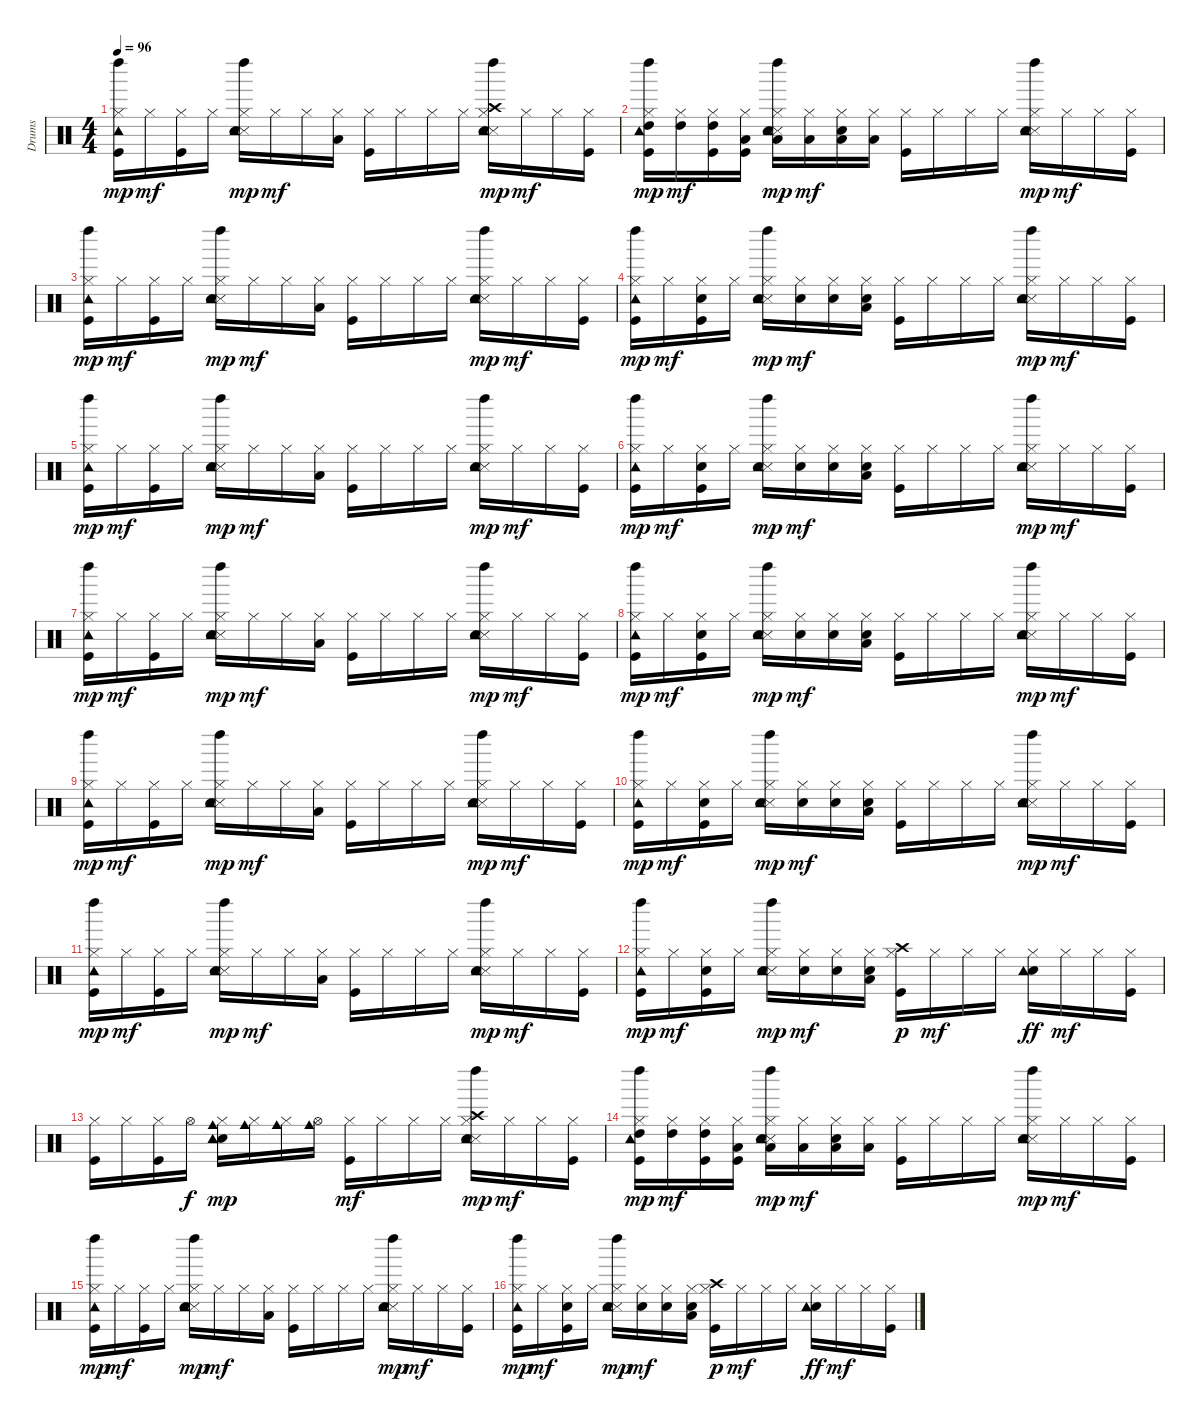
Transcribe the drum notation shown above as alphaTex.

\track ("Drums" "Drums") {instrument percussion}
\staff {score}
\articulation defaults
\ts (4 4)
\tempo 96
\clef neutral
\ks c
("Kick (hit)" "Hi-Hat (closed)" "Tambourine (hit)" "Left Maraca (hit)").16{dy mp} "Hi-Hat (closed)".16{dy mf} ("Kick (hit)" "Hi-Hat (closed)").16 "Hi-Hat (closed)".16 ("Snare (side stick) 3" "Snare (hit) 2" "Hi-Hat (closed)" "Tambourine (hit)" "Left Maraca (hit)").16{dy mp} "Hi-Hat (closed)".16{dy mf} "Hi-Hat (closed)".16 ("Low Floor Tom (hit)" "Hi-Hat (closed)").16 ("Kick (hit)" "Hi-Hat (closed)").16 "Hi-Hat (closed)".16 "Hi-Hat (closed)".16 "Hi-Hat (closed)".16 ("Snare (side stick) 3" "Snare (hit) 2" "Hi-Hat (closed)" "Crash high (hit)" "Tambourine (hit)" "Left Maraca (hit)").16{dy mp} "Hi-Hat (closed)".16{dy mf} "Hi-Hat (closed)".16 ("Kick (hit)" "Hi-Hat (closed)").16 |
("Kick (hit)" "Hi-Hat (closed)" "High Tom (hit)" "Tambourine (hit)" "Left Maraca (hit)").16{dy mp} ("Hi-Hat (closed)" "High Tom (hit)").16{dy mf} ("Kick (hit)" "Hi-Hat (closed)" "High Tom (hit)").16 ("Kick (hit)" "Hi-Hat (closed)" "Low Tom (hit)").16 ("Snare (side stick) 3" "Snare (hit) 2" "Hi-Hat (closed)" "Low Tom (hit)" "Tambourine (hit)" "Left Maraca (hit)").16{dy mp} ("Hi-Hat (closed)" "Low Tom (hit)").16{dy mf} ("Snare (hit) 2" "Low Floor Tom (hit)" "Hi-Hat (closed)").16 ("Low Floor Tom (hit)" "Hi-Hat (closed)").16 ("Kick (hit)" "Hi-Hat (closed)").16 "Hi-Hat (closed)".16 "Hi-Hat (closed)".16 "Hi-Hat (closed)".16 ("Snare (side stick) 3" "Snare (hit) 2" "Hi-Hat (closed)" "Tambourine (hit)" "Left Maraca (hit)").16{dy mp} "Hi-Hat (closed)".16{dy mf} "Hi-Hat (closed)".16 ("Kick (hit)" "Hi-Hat (closed)").16 |
("Kick (hit)" "Hi-Hat (closed)" "Tambourine (hit)" "Left Maraca (hit)").16{dy mp} "Hi-Hat (closed)".16{dy mf} ("Kick (hit)" "Hi-Hat (closed)").16 "Hi-Hat (closed)".16 ("Snare (side stick) 3" "Snare (hit) 2" "Hi-Hat (closed)" "Tambourine (hit)" "Left Maraca (hit)").16{dy mp} "Hi-Hat (closed)".16{dy mf} "Hi-Hat (closed)".16 ("Low Floor Tom (hit)" "Hi-Hat (closed)").16 ("Kick (hit)" "Hi-Hat (closed)").16 "Hi-Hat (closed)".16 "Hi-Hat (closed)".16 "Hi-Hat (closed)".16 ("Snare (side stick) 3" "Snare (hit) 2" "Hi-Hat (closed)" "Tambourine (hit)" "Left Maraca (hit)").16{dy mp} "Hi-Hat (closed)".16{dy mf} "Hi-Hat (closed)".16 ("Kick (hit)" "Hi-Hat (closed)").16 |
("Kick (hit)" "Hi-Hat (closed)" "Tambourine (hit)" "Left Maraca (hit)").16{dy mp} "Hi-Hat (closed)".16{dy mf} ("Kick (hit)" "Snare (hit) 2" "Hi-Hat (closed)").16 "Hi-Hat (closed)".16 ("Snare (side stick) 3" "Snare (hit) 2" "Hi-Hat (closed)" "Tambourine (hit)" "Left Maraca (hit)").16{dy mp} ("Snare (hit) 2" "Hi-Hat (closed)").16{dy mf} ("Snare (hit) 2" "Hi-Hat (closed)").16 ("Snare (hit) 2" "Low Floor Tom (hit)" "Hi-Hat (closed)").16 ("Kick (hit)" "Hi-Hat (closed)").16 "Hi-Hat (closed)".16 "Hi-Hat (closed)".16 "Hi-Hat (closed)".16 ("Snare (side stick) 3" "Snare (hit) 2" "Hi-Hat (closed)" "Tambourine (hit)" "Left Maraca (hit)").16{dy mp} "Hi-Hat (closed)".16{dy mf} "Hi-Hat (closed)".16 ("Kick (hit)" "Hi-Hat (closed)").16 |
("Kick (hit)" "Hi-Hat (closed)" "Tambourine (hit)" "Left Maraca (hit)").16{dy mp} "Hi-Hat (closed)".16{dy mf} ("Kick (hit)" "Hi-Hat (closed)").16 "Hi-Hat (closed)".16 ("Snare (side stick) 3" "Snare (hit) 2" "Hi-Hat (closed)" "Tambourine (hit)" "Left Maraca (hit)").16{dy mp} "Hi-Hat (closed)".16{dy mf} "Hi-Hat (closed)".16 ("Low Floor Tom (hit)" "Hi-Hat (closed)").16 ("Kick (hit)" "Hi-Hat (closed)").16 "Hi-Hat (closed)".16 "Hi-Hat (closed)".16 "Hi-Hat (closed)".16 ("Snare (side stick) 3" "Snare (hit) 2" "Hi-Hat (closed)" "Tambourine (hit)" "Left Maraca (hit)").16{dy mp} "Hi-Hat (closed)".16{dy mf} "Hi-Hat (closed)".16 ("Kick (hit)" "Hi-Hat (closed)").16 |
("Kick (hit)" "Hi-Hat (closed)" "Tambourine (hit)" "Left Maraca (hit)").16{dy mp} "Hi-Hat (closed)".16{dy mf} ("Kick (hit)" "Snare (hit) 2" "Hi-Hat (closed)").16 "Hi-Hat (closed)".16 ("Snare (side stick) 3" "Snare (hit) 2" "Hi-Hat (closed)" "Tambourine (hit)" "Left Maraca (hit)").16{dy mp} ("Snare (hit) 2" "Hi-Hat (closed)").16{dy mf} ("Snare (hit) 2" "Hi-Hat (closed)").16 ("Snare (hit) 2" "Low Floor Tom (hit)" "Hi-Hat (closed)").16 ("Kick (hit)" "Hi-Hat (closed)").16 "Hi-Hat (closed)".16 "Hi-Hat (closed)".16 "Hi-Hat (closed)".16 ("Snare (side stick) 3" "Snare (hit) 2" "Hi-Hat (closed)" "Tambourine (hit)" "Left Maraca (hit)").16{dy mp} "Hi-Hat (closed)".16{dy mf} "Hi-Hat (closed)".16 ("Kick (hit)" "Hi-Hat (closed)").16 |
("Kick (hit)" "Hi-Hat (closed)" "Tambourine (hit)" "Left Maraca (hit)").16{dy mp} "Hi-Hat (closed)".16{dy mf} ("Kick (hit)" "Hi-Hat (closed)").16 "Hi-Hat (closed)".16 ("Snare (side stick) 3" "Snare (hit) 2" "Hi-Hat (closed)" "Tambourine (hit)" "Left Maraca (hit)").16{dy mp} "Hi-Hat (closed)".16{dy mf} "Hi-Hat (closed)".16 ("Low Floor Tom (hit)" "Hi-Hat (closed)").16 ("Kick (hit)" "Hi-Hat (closed)").16 "Hi-Hat (closed)".16 "Hi-Hat (closed)".16 "Hi-Hat (closed)".16 ("Snare (side stick) 3" "Snare (hit) 2" "Hi-Hat (closed)" "Tambourine (hit)" "Left Maraca (hit)").16{dy mp} "Hi-Hat (closed)".16{dy mf} "Hi-Hat (closed)".16 ("Kick (hit)" "Hi-Hat (closed)").16 |
("Kick (hit)" "Hi-Hat (closed)" "Tambourine (hit)" "Left Maraca (hit)").16{dy mp} "Hi-Hat (closed)".16{dy mf} ("Kick (hit)" "Snare (hit) 2" "Hi-Hat (closed)").16 "Hi-Hat (closed)".16 ("Snare (side stick) 3" "Snare (hit) 2" "Hi-Hat (closed)" "Tambourine (hit)" "Left Maraca (hit)").16{dy mp} ("Snare (hit) 2" "Hi-Hat (closed)").16{dy mf} ("Snare (hit) 2" "Hi-Hat (closed)").16 ("Snare (hit) 2" "Low Floor Tom (hit)" "Hi-Hat (closed)").16 ("Kick (hit)" "Hi-Hat (closed)").16 "Hi-Hat (closed)".16 "Hi-Hat (closed)".16 "Hi-Hat (closed)".16 ("Snare (side stick) 3" "Snare (hit) 2" "Hi-Hat (closed)" "Tambourine (hit)" "Left Maraca (hit)").16{dy mp} "Hi-Hat (closed)".16{dy mf} "Hi-Hat (closed)".16 ("Kick (hit)" "Hi-Hat (closed)").16 |
("Kick (hit)" "Hi-Hat (closed)" "Tambourine (hit)" "Left Maraca (hit)").16{dy mp} "Hi-Hat (closed)".16{dy mf} ("Kick (hit)" "Hi-Hat (closed)").16 "Hi-Hat (closed)".16 ("Snare (side stick) 3" "Snare (hit) 2" "Hi-Hat (closed)" "Tambourine (hit)" "Left Maraca (hit)").16{dy mp} "Hi-Hat (closed)".16{dy mf} "Hi-Hat (closed)".16 ("Low Floor Tom (hit)" "Hi-Hat (closed)").16 ("Kick (hit)" "Hi-Hat (closed)").16 "Hi-Hat (closed)".16 "Hi-Hat (closed)".16 "Hi-Hat (closed)".16 ("Snare (side stick) 3" "Snare (hit) 2" "Hi-Hat (closed)" "Tambourine (hit)" "Left Maraca (hit)").16{dy mp} "Hi-Hat (closed)".16{dy mf} "Hi-Hat (closed)".16 ("Kick (hit)" "Hi-Hat (closed)").16 |
("Kick (hit)" "Hi-Hat (closed)" "Tambourine (hit)" "Left Maraca (hit)").16{dy mp} "Hi-Hat (closed)".16{dy mf} ("Kick (hit)" "Snare (hit) 2" "Hi-Hat (closed)").16 "Hi-Hat (closed)".16 ("Snare (side stick) 3" "Snare (hit) 2" "Hi-Hat (closed)" "Tambourine (hit)" "Left Maraca (hit)").16{dy mp} ("Snare (hit) 2" "Hi-Hat (closed)").16{dy mf} ("Snare (hit) 2" "Hi-Hat (closed)").16 ("Snare (hit) 2" "Low Floor Tom (hit)" "Hi-Hat (closed)").16 ("Kick (hit)" "Hi-Hat (closed)").16 "Hi-Hat (closed)".16 "Hi-Hat (closed)".16 "Hi-Hat (closed)".16 ("Snare (side stick) 3" "Snare (hit) 2" "Hi-Hat (closed)" "Tambourine (hit)" "Left Maraca (hit)").16{dy mp} "Hi-Hat (closed)".16{dy mf} "Hi-Hat (closed)".16 ("Kick (hit)" "Hi-Hat (closed)").16 |
("Kick (hit)" "Hi-Hat (closed)" "Tambourine (hit)" "Left Maraca (hit)").16{dy mp} "Hi-Hat (closed)".16{dy mf} ("Kick (hit)" "Hi-Hat (closed)").16 "Hi-Hat (closed)".16 ("Snare (side stick) 3" "Snare (hit) 2" "Hi-Hat (closed)" "Tambourine (hit)" "Left Maraca (hit)").16{dy mp} "Hi-Hat (closed)".16{dy mf} "Hi-Hat (closed)".16 ("Low Floor Tom (hit)" "Hi-Hat (closed)").16 ("Kick (hit)" "Hi-Hat (closed)").16 "Hi-Hat (closed)".16 "Hi-Hat (closed)".16 "Hi-Hat (closed)".16 ("Snare (side stick) 3" "Snare (hit) 2" "Hi-Hat (closed)" "Tambourine (hit)" "Left Maraca (hit)").16{dy mp} "Hi-Hat (closed)".16{dy mf} "Hi-Hat (closed)".16 ("Kick (hit)" "Hi-Hat (closed)").16 |
("Kick (hit)" "Hi-Hat (closed)" "Tambourine (hit)" "Left Maraca (hit)").16{dy mp} "Hi-Hat (closed)".16{dy mf} ("Kick (hit)" "Snare (hit) 2" "Hi-Hat (closed)").16 "Hi-Hat (closed)".16 ("Snare (side stick) 3" "Snare (hit) 2" "Hi-Hat (closed)" "Tambourine (hit)" "Left Maraca (hit)").16{dy mp} ("Snare (hit) 2" "Hi-Hat (closed)").16{dy mf} ("Snare (hit) 2" "Hi-Hat (closed)").16 ("Snare (hit) 2" "Low Floor Tom (hit)" "Hi-Hat (closed)").16 ("Kick (hit)" "Hi-Hat (closed)" "Crash high (hit)").16{dy p} "Hi-Hat (closed)".16{dy mf} "Hi-Hat (closed)".16 "Hi-Hat (closed)".16 ("Snare (hit) 2" "Hi-Hat (closed)" "Tambourine (hit)" "Tambourine (hit)").16{dy ff} "Hi-Hat (closed)".16{dy mf} "Hi-Hat (closed)".16 ("Kick (hit)" "Hi-Hat (closed)").16 |
("Kick (hit)" "Hi-Hat (closed)").16 "Hi-Hat (closed)".16 ("Kick (hit)" "Hi-Hat (closed)").16 "Hi-Hat (open)".16{dy f} ("Snare (hit) 2" "Hi-Hat (closed)" "Tambourine (hit)" "Tambourine (hit)" "Cowbell medium (hit)").16{dy mp} ("Hi-Hat (closed)" "Cowbell medium (hit)").16 ("Hi-Hat (closed)" "Cowbell medium (hit)").16 ("Hi-Hat (open)" "Cowbell medium (hit)").16 ("Kick (hit)" "Hi-Hat (closed)").16{dy mf} "Hi-Hat (closed)".16 "Hi-Hat (closed)".16 "Hi-Hat (closed)".16 ("Snare (side stick) 3" "Snare (hit) 2" "Hi-Hat (closed)" "Crash high (hit)" "Tambourine (hit)" "Left Maraca (hit)").16{dy mp} "Hi-Hat (closed)".16{dy mf} "Hi-Hat (closed)".16 ("Kick (hit)" "Hi-Hat (closed)").16 |
("Kick (hit)" "Hi-Hat (closed)" "High Tom (hit)" "Tambourine (hit)" "Left Maraca (hit)").16{dy mp} ("Hi-Hat (closed)" "High Tom (hit)").16{dy mf} ("Kick (hit)" "Hi-Hat (closed)" "High Tom (hit)").16 ("Kick (hit)" "Hi-Hat (closed)" "Low Tom (hit)").16 ("Snare (side stick) 3" "Snare (hit) 2" "Hi-Hat (closed)" "Low Tom (hit)" "Tambourine (hit)" "Left Maraca (hit)").16{dy mp} ("Hi-Hat (closed)" "Low Tom (hit)").16{dy mf} ("Snare (hit) 2" "Low Floor Tom (hit)" "Hi-Hat (closed)").16 ("Low Floor Tom (hit)" "Hi-Hat (closed)").16 ("Kick (hit)" "Hi-Hat (closed)").16 "Hi-Hat (closed)".16 "Hi-Hat (closed)".16 "Hi-Hat (closed)".16 ("Snare (side stick) 3" "Snare (hit) 2" "Hi-Hat (closed)" "Tambourine (hit)" "Left Maraca (hit)").16{dy mp} "Hi-Hat (closed)".16{dy mf} "Hi-Hat (closed)".16 ("Kick (hit)" "Hi-Hat (closed)").16 |
("Kick (hit)" "Hi-Hat (closed)" "Tambourine (hit)" "Left Maraca (hit)").16{dy mp} "Hi-Hat (closed)".16{dy mf} ("Kick (hit)" "Hi-Hat (closed)").16 "Hi-Hat (closed)".16 ("Snare (side stick) 3" "Snare (hit) 2" "Hi-Hat (closed)" "Tambourine (hit)" "Left Maraca (hit)").16{dy mp} "Hi-Hat (closed)".16{dy mf} "Hi-Hat (closed)".16 ("Low Floor Tom (hit)" "Hi-Hat (closed)").16 ("Kick (hit)" "Hi-Hat (closed)").16 "Hi-Hat (closed)".16 "Hi-Hat (closed)".16 "Hi-Hat (closed)".16 ("Snare (side stick) 3" "Snare (hit) 2" "Hi-Hat (closed)" "Tambourine (hit)" "Left Maraca (hit)").16{dy mp} "Hi-Hat (closed)".16{dy mf} "Hi-Hat (closed)".16 ("Kick (hit)" "Hi-Hat (closed)").16 |
("Kick (hit)" "Hi-Hat (closed)" "Tambourine (hit)" "Left Maraca (hit)").16{dy mp} "Hi-Hat (closed)".16{dy mf} ("Kick (hit)" "Snare (hit) 2" "Hi-Hat (closed)").16 "Hi-Hat (closed)".16 ("Snare (side stick) 3" "Snare (hit) 2" "Hi-Hat (closed)" "Tambourine (hit)" "Left Maraca (hit)").16{dy mp} ("Snare (hit) 2" "Hi-Hat (closed)").16{dy mf} ("Snare (hit) 2" "Hi-Hat (closed)").16 ("Snare (hit) 2" "Low Floor Tom (hit)" "Hi-Hat (closed)").16 ("Kick (hit)" "Hi-Hat (closed)" "Crash high (hit)").16{dy p} "Hi-Hat (closed)".16{dy mf} "Hi-Hat (closed)".16 "Hi-Hat (closed)".16 ("Snare (hit) 2" "Hi-Hat (closed)" "Tambourine (hit)" "Tambourine (hit)").16{dy ff} "Hi-Hat (closed)".16{dy mf} "Hi-Hat (closed)".16 ("Kick (hit)" "Hi-Hat (closed)").16
